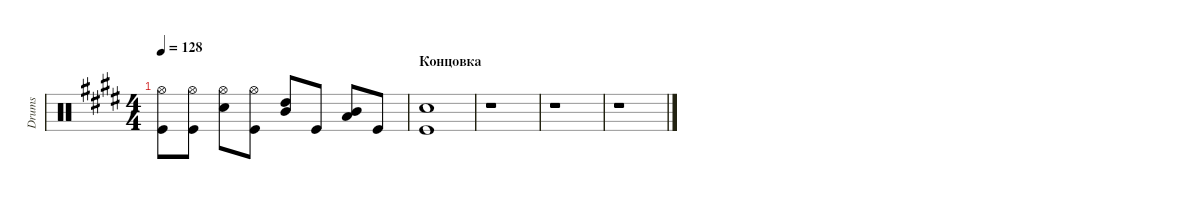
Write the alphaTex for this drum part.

\defaultSystemsLayout 4
\hideDynamics
\bracketExtendMode groupsimilarinstruments
\singleTrackTrackNamePolicy allsystems
\multiTrackTrackNamePolicy allsystems
\otherSystemsTrackNameOrientation horizontal
\defaultBarNumberDisplay FirstOfSystem
\track ("Drumkit" "Drums") {instrument percussion}
\staff {score}
\articulation defaults
\ts (4 4)
\tempo 128
\clef neutral
\ks e
("Kick (hit)" "Hi-Hat (open)").8{dy mf} ("Kick (hit)" "Hi-Hat (open)").8 ("Snare (hit) 2" "Hi-Hat (open)").8 ("Kick (hit)" "Hi-Hat (open)").8 ("High Tom (hit)" "Mid Tom (hit)").8 "Kick (hit)".8 ("Mid Tom (hit)" "Low Tom (hit)").8 "Kick (hit)".8 |
\section ("" "Концовка")
("Snare (hit) 2" "Kick (hit)").1 |
r.1 |
r.1 |
r.1
